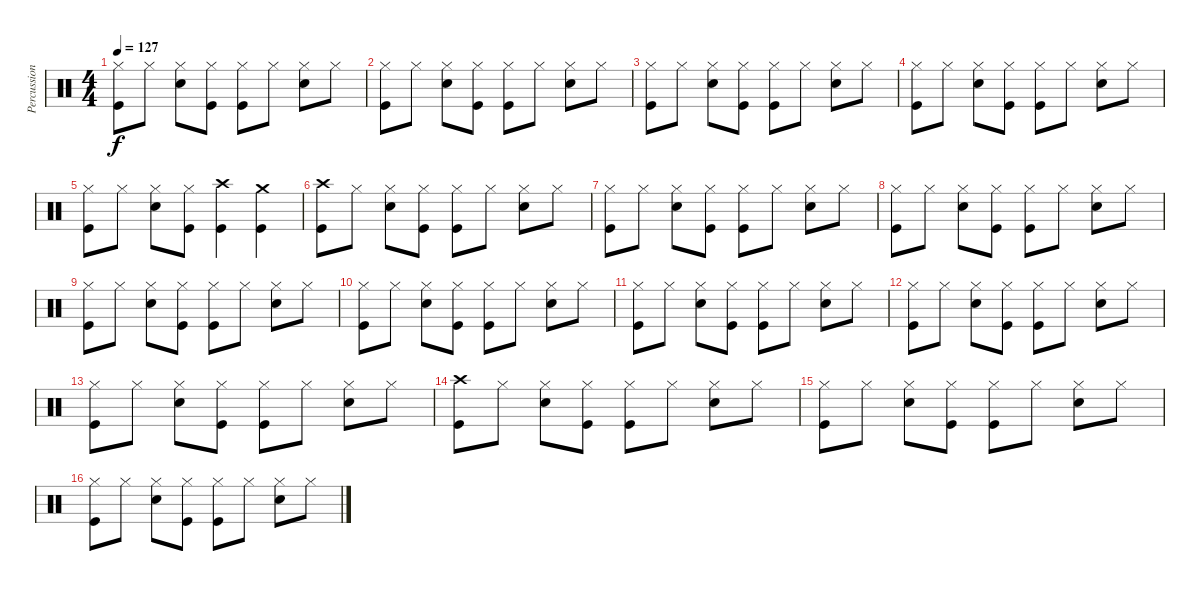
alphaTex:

\track ("Percussions" "Percussion") {instrument percussion}
\staff {score}
\articulation defaults
\ts (4 4)
\tempo 127
\clef neutral
\ks c
("Hi-Hat (closed)" "Kick (hit)").8{dy f} "Hi-Hat (closed)".8 ("Hi-Hat (closed)" "Snare (hit) 2").8 ("Hi-Hat (closed)" "Kick (hit)").8 ("Hi-Hat (closed)" "Kick (hit)").8 "Hi-Hat (closed)".8 ("Hi-Hat (closed)" "Snare (hit) 2").8 "Hi-Hat (closed)".8 |
("Hi-Hat (closed)" "Kick (hit)").8 "Hi-Hat (closed)".8 ("Hi-Hat (closed)" "Snare (hit) 2").8 ("Hi-Hat (closed)" "Kick (hit)").8 ("Hi-Hat (closed)" "Kick (hit)").8 "Hi-Hat (closed)".8 ("Hi-Hat (closed)" "Snare (hit) 2").8 "Hi-Hat (closed)".8 |
("Hi-Hat (closed)" "Kick (hit)").8 "Hi-Hat (closed)".8 ("Hi-Hat (closed)" "Snare (hit) 2").8 ("Hi-Hat (closed)" "Kick (hit)").8 ("Hi-Hat (closed)" "Kick (hit)").8 "Hi-Hat (closed)".8 ("Hi-Hat (closed)" "Snare (hit) 2").8 "Hi-Hat (closed)".8 |
("Hi-Hat (closed)" "Kick (hit)").8 "Hi-Hat (closed)".8 ("Hi-Hat (closed)" "Snare (hit) 2").8 ("Hi-Hat (closed)" "Kick (hit)").8 ("Hi-Hat (closed)" "Kick (hit)").8 "Hi-Hat (closed)".8 ("Hi-Hat (closed)" "Snare (hit) 2").8 "Hi-Hat (closed)".8 |
("Hi-Hat (closed)" "Kick (hit)").8 "Hi-Hat (closed)".8 ("Hi-Hat (closed)" "Snare (hit) 2").8 ("Hi-Hat (closed)" "Kick (hit)").8 ("Crash high (hit)" "Kick (hit)").4 ("Crash medium (hit)" "Kick (hit)").4 |
("Crash high (hit)" "Kick (hit)").8 "Hi-Hat (closed)".8 ("Hi-Hat (closed)" "Snare (hit) 2").8 ("Hi-Hat (closed)" "Kick (hit)").8 ("Hi-Hat (closed)" "Kick (hit)").8 "Hi-Hat (closed)".8 ("Hi-Hat (closed)" "Snare (hit) 2").8 "Hi-Hat (closed)".8 |
("Hi-Hat (closed)" "Kick (hit)").8 "Hi-Hat (closed)".8 ("Hi-Hat (closed)" "Snare (hit) 2").8 ("Hi-Hat (closed)" "Kick (hit)").8 ("Hi-Hat (closed)" "Kick (hit)").8 "Hi-Hat (closed)".8 ("Hi-Hat (closed)" "Snare (hit) 2").8 "Hi-Hat (closed)".8 |
("Hi-Hat (closed)" "Kick (hit)").8 "Hi-Hat (closed)".8 ("Hi-Hat (closed)" "Snare (hit) 2").8 ("Hi-Hat (closed)" "Kick (hit)").8 ("Hi-Hat (closed)" "Kick (hit)").8 "Hi-Hat (closed)".8 ("Hi-Hat (closed)" "Snare (hit) 2").8 "Hi-Hat (closed)".8 |
("Hi-Hat (closed)" "Kick (hit)").8 "Hi-Hat (closed)".8 ("Hi-Hat (closed)" "Snare (hit) 2").8 ("Hi-Hat (closed)" "Kick (hit)").8 ("Hi-Hat (closed)" "Kick (hit)").8 "Hi-Hat (closed)".8 ("Hi-Hat (closed)" "Snare (hit) 2").8 "Hi-Hat (closed)".8 |
("Hi-Hat (closed)" "Kick (hit)").8 "Hi-Hat (closed)".8 ("Hi-Hat (closed)" "Snare (hit) 2").8 ("Hi-Hat (closed)" "Kick (hit)").8 ("Hi-Hat (closed)" "Kick (hit)").8 "Hi-Hat (closed)".8 ("Hi-Hat (closed)" "Snare (hit) 2").8 "Hi-Hat (closed)".8 |
("Hi-Hat (closed)" "Kick (hit)").8 "Hi-Hat (closed)".8 ("Hi-Hat (closed)" "Snare (hit) 2").8 ("Hi-Hat (closed)" "Kick (hit)").8 ("Hi-Hat (closed)" "Kick (hit)").8 "Hi-Hat (closed)".8 ("Hi-Hat (closed)" "Snare (hit) 2").8 "Hi-Hat (closed)".8 |
("Hi-Hat (closed)" "Kick (hit)").8 "Hi-Hat (closed)".8 ("Hi-Hat (closed)" "Snare (hit) 2").8 ("Hi-Hat (closed)" "Kick (hit)").8 ("Hi-Hat (closed)" "Kick (hit)").8 "Hi-Hat (closed)".8 ("Hi-Hat (closed)" "Snare (hit) 2").8 "Hi-Hat (closed)".8 |
("Hi-Hat (closed)" "Kick (hit)").8 "Hi-Hat (closed)".8 ("Hi-Hat (closed)" "Snare (hit) 2").8 ("Hi-Hat (closed)" "Kick (hit)").8 ("Hi-Hat (closed)" "Kick (hit)").8 "Hi-Hat (closed)".8 ("Hi-Hat (closed)" "Snare (hit) 2").8 "Hi-Hat (closed)".8 |
("Crash high (hit)" "Kick (hit)").8 "Hi-Hat (closed)".8 ("Hi-Hat (closed)" "Snare (hit) 2").8 ("Hi-Hat (closed)" "Kick (hit)").8 ("Hi-Hat (closed)" "Kick (hit)").8 "Hi-Hat (closed)".8 ("Hi-Hat (closed)" "Snare (hit) 2").8 "Hi-Hat (closed)".8 |
("Hi-Hat (closed)" "Kick (hit)").8 "Hi-Hat (closed)".8 ("Hi-Hat (closed)" "Snare (hit) 2").8 ("Hi-Hat (closed)" "Kick (hit)").8 ("Hi-Hat (closed)" "Kick (hit)").8 "Hi-Hat (closed)".8 ("Hi-Hat (closed)" "Snare (hit) 2").8 "Hi-Hat (closed)".8 |
("Hi-Hat (closed)" "Kick (hit)").8 "Hi-Hat (closed)".8 ("Hi-Hat (closed)" "Snare (hit) 2").8 ("Hi-Hat (closed)" "Kick (hit)").8 ("Hi-Hat (closed)" "Kick (hit)").8 "Hi-Hat (closed)".8 ("Hi-Hat (closed)" "Snare (hit) 2").8 "Hi-Hat (closed)".8
